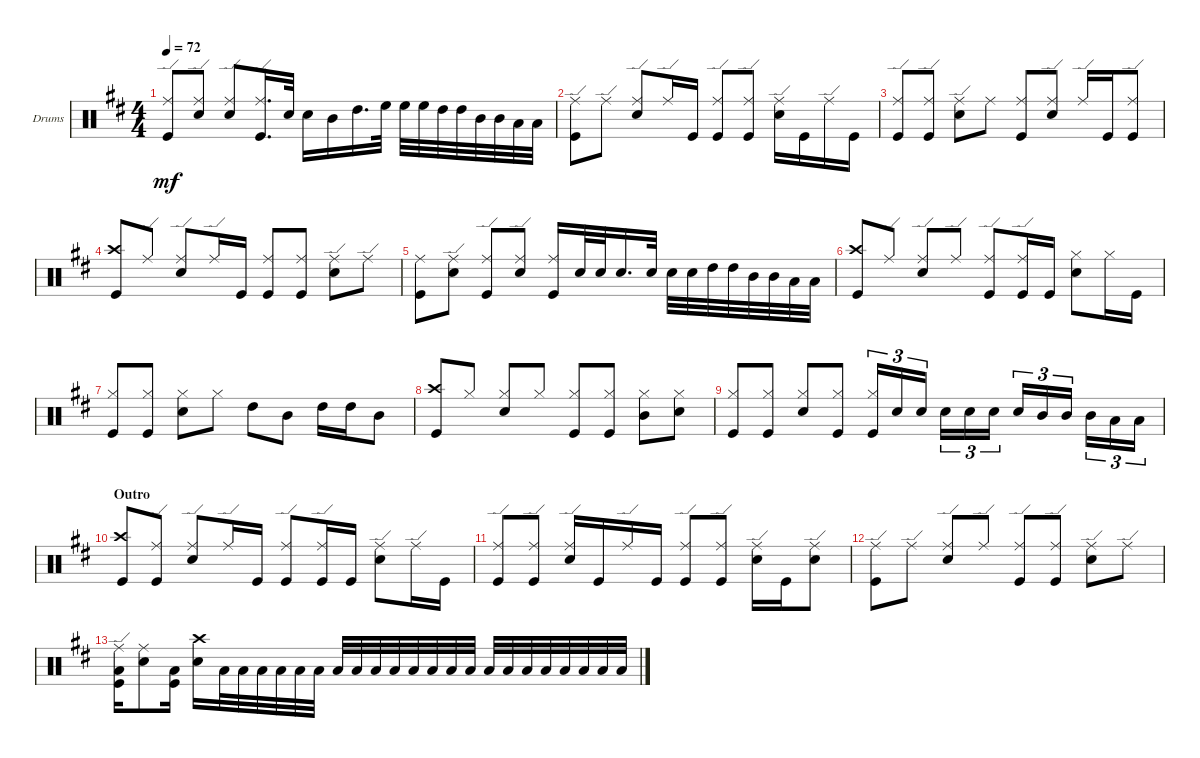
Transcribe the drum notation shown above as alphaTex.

\defaultSystemsLayout 4
\bracketExtendMode groupsimilarinstruments
\firstSystemTrackNameOrientation horizontal
\otherSystemsTrackNameOrientation horizontal
\track ("PETER CRISS" "Drums") {instrument percussion}
\staff {score}
\articulation defaults
\ts (4 4)
\tempo 72
\clef neutral
\scale
0.333333
\ks d
("Ride (edge)" "Kick (hit)").8{dy mf} ("Ride (edge)" "Snare (hit) 2").8 ("Ride (edge)" "Snare (hit) 2").8{beam invert} ("Ride (edge)" "Kick (hit)").16{d} "Snare (hit) 2".32 "Snare (hit) 2".16 "Mid Tom (hit)".16 "High Tom (hit)".16{d} "High Floor Tom (hit)".32 "High Floor Tom (hit)".32 "High Floor Tom (hit)".32 "High Tom (hit)".32 "High Tom (hit)".32 "Mid Tom (hit)".32 "Mid Tom (hit)".32 "Low Tom (hit)".32 "Low Tom (hit)".32 |
\scale
0.333333 ("Ride (edge)" "Kick (hit)").8 "Ride (edge)".8 ("Ride (edge)" "Snare (hit) 2").8 "Ride (edge)".16 "Kick (hit)".16 ("Ride (edge)" "Kick (hit)").8{beam invert} ("Kick (hit)" "Ride (edge)").8 ("Snare (hit) 2" "Ride (edge)").16 "Kick (hit)".16 "Ride (edge)".16 "Kick (hit)".16 |
\scale
0.333333 ("Ride (edge)" "Kick (hit)").8{beam invert} ("Ride (edge)" "Kick (hit)").8 ("Ride (edge)" "Snare (hit) 2").8 "Ride (middle)".8 ("Ride (middle)" "Kick (hit)").8 ("Ride (edge)" "Snare (hit) 2").8 "Ride (edge)".16{beam invert} "Kick (hit)".16 ("Kick (hit)" "Ride (edge)").8 |
\scale
0.333333 ("Crash high (hit)" "Kick (hit)").8{beam invert} "Ride (edge)".8 ("Ride (edge)" "Snare (hit) 2").8 "Ride (edge)".16 "Kick (hit)".16 ("Kick (hit)" "Ride (middle)").8{beam invert} ("Ride (middle)" "Kick (hit)").8 ("Snare (hit) 2" "Ride (edge)").8 "Ride (edge)".8 |
\scale
0.333333 ("Ride (middle)" "Kick (hit)").8 ("Snare (hit) 2" "Ride (edge)").8 ("Ride (edge)" "Kick (hit)").8 ("Snare (hit) 2" "Ride (edge)").8 ("Kick (hit)" "Ride (middle)").16{beam invert} "Snare (hit) 2".32 "Snare (hit) 2".32 "Snare (hit) 2".16{d} "Snare (hit) 2".32 "Snare (hit) 2".32 "Snare (hit) 2".32 "High Tom (hit)".32 "High Tom (hit)".32 "Mid Tom (hit)".32 "Mid Tom (hit)".32 "Low Tom (hit)".32 "Low Tom (hit)".32 |
\scale
0.333333 ("Crash high (hit)" "Kick (hit)").8{beam invert} "Ride (edge)".8 ("Ride (edge)" "Snare (hit) 2").8 "Ride (edge)".8 ("Ride (edge)" "Kick (hit)").8{beam invert} ("Ride (edge)" "Kick (hit)").16 "Kick (hit)".16 ("Snare (hit) 2" "Hi-Hat (closed)").8 "Hi-Hat (closed)".16 "Kick (hit)".16 |
\scale
0.333333 ("Kick (hit)" "Hi-Hat (closed)").8{beam invert} ("Hi-Hat (closed)" "Kick (hit)").8 ("Snare (hit) 2" "Hi-Hat (closed)").8 "Hi-Hat (closed)".8 "High Tom (hit)".8 "Mid Tom (hit)".8 "High Tom (hit)".16 "High Tom (hit)".16 "Mid Tom (hit)".8 |
\scale
0.333333 ("Crash high (hit)" "Kick (hit)").8{beam invert} "Hi-Hat (closed)".8 ("Hi-Hat (closed)" "Snare (hit) 2").8 "Hi-Hat (closed)".8 ("Hi-Hat (closed)" "Kick (hit)").8{beam invert} ("Kick (hit)" "Hi-Hat (closed)").8 ("Mid Tom (hit)" "Hi-Hat (closed)").8 ("Hi-Hat (closed)" "Snare (hit) 2").8 |
\scale
0.333333 ("Kick (hit)" "Hi-Hat (closed)").8{beam invert} ("Hi-Hat (closed)" "Kick (hit)").8 ("Snare (hit) 2" "Hi-Hat (closed)").8{beam invert} ("Hi-Hat (closed)" "Kick (hit)").8 ("Hi-Hat (closed)" "Kick (hit)").16{tu (3 2) beam invert} "Snare (hit) 2".16{tu (3 2)} "Snare (hit) 2".16{tu (3 2)} "Snare (hit) 2".16{tu (3 2)} "Snare (hit) 2".16{tu (3 2)} "Snare (hit) 2".16{tu (3 2)} "Snare (hit) 2".16{tu (3 2)} "Mid Tom (hit)".16{tu (3 2)} "Mid Tom (hit)".16{tu (3 2)} "Mid Tom (hit)".16{tu (3 2) beam invert} "Low Tom (hit)".16{tu (3 2)} "Low Tom (hit)".16{tu (3 2)} |
\section ("" "Outro")
\scale
0.333333 ("Crash high (hit)" "Kick (hit)").8{beam invert} ("Kick (hit)" "Ride (edge)").8 ("Ride (edge)" "Snare (hit) 2").8 "Ride (edge)".16 "Kick (hit)".16 ("Kick (hit)" "Ride (edge)").8{beam invert} ("Ride (edge)" "Kick (hit)").16 "Kick (hit)".16 ("Ride (edge)" "Snare (hit) 2").8 "Ride (edge)".16 "Kick (hit)".16 |
\scale
0.333333 ("Kick (hit)" "Ride (edge)").8{beam invert} ("Ride (edge)" "Kick (hit)").8 ("Snare (hit) 2" "Ride (edge)").16 "Kick (hit)".16 "Ride (edge)".16 "Kick (hit)".16 ("Kick (hit)" "Ride (edge)").8{beam invert} ("Ride (edge)" "Kick (hit)").8 ("Snare (hit) 2" "Ride (edge)").16 "Kick (hit)".16 ("Snare (hit) 2" "Ride (edge)").8 |
\scale
0.333333 ("Kick (hit)" "Ride (edge)").8 "Ride (edge)".8 ("Ride (edge)" "Snare (hit) 2").8 "Ride (edge)".8 ("Ride (edge)" "Kick (hit)").8{beam invert} ("Kick (hit)" "Ride (edge)").8 ("Snare (hit) 2" "Ride (edge)").8 "Ride (edge)".8 |
("Kick (hit)" "Low Tom (hit)" "Ride (edge)").16 ("Snare (hit) 2" "Ride (middle)").8 ("Kick (hit)" "Low Tom (hit)").16 ("Snare (hit) 2" "Crash high (hit)").16 "Low Tom (hit)".32 "Low Tom (hit)".32 "Low Tom (hit)".32 "Low Tom (hit)".32 "Low Tom (hit)".32 "Low Tom (hit)".32 "Low Tom (hit)".32 "Low Tom (hit)".32 "Low Tom (hit)".32 "Low Tom (hit)".32 "Low Tom (hit)".32 "Low Tom (hit)".32 "Low Tom (hit)".32 "Low Tom (hit)".32 "Low Tom (hit)".32 "Low Tom (hit)".32 "Low Tom (hit)".32 "Low Tom (hit)".32 "Low Tom (hit)".32 "Low Tom (hit)".32 "Low Tom (hit)".32 "Low Tom (hit)".32
